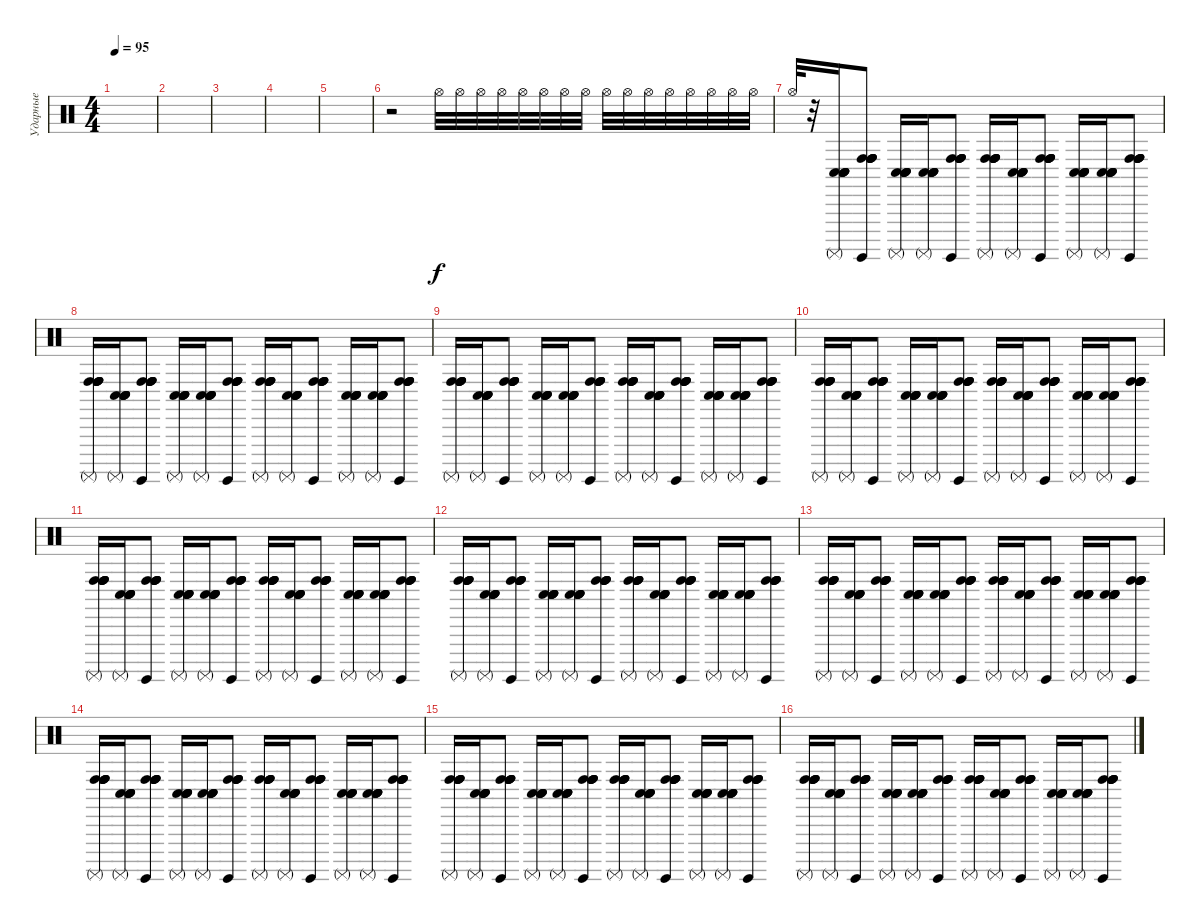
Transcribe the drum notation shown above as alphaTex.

\track ("Ударные" "Ударные") {instrument percussion}
\staff {score}
\articulation defaults
\ts (4 4)
\tempo 95
\clef neutral
\ks c
|
|
|
|
|
r.2{volume 3} "Hi-Hat (open)".32{volume 10} "Hi-Hat (open)".32 "Hi-Hat (open)".32 "Hi-Hat (open)".32 "Hi-Hat (open)".32 "Hi-Hat (open)".32 "Hi-Hat (open)".32 "Hi-Hat (open)".32 "Hi-Hat (open)".32 "Hi-Hat (open)".32 "Hi-Hat (open)".32 "Hi-Hat (open)".32 "Hi-Hat (open)".32 "Hi-Hat (open)".32 "Hi-Hat (open)".32 "Hi-Hat (open)".32 |
"Hi-Hat (open)".32 r.32 ("Surdo (mute)" "Conga low (hit)" "Conga low (hit)" "Conga low (hit)" "Conga low (hit)" "Conga low (hit)").16 ("Surdo (hit)" "Conga high (hit)" "Conga high (hit)" "Conga high (hit)" "Conga high (hit)" "Conga high (hit)").8 ("Surdo (mute)" "Conga low (hit)" "Conga low (hit)" "Conga low (hit)" "Conga low (hit)" "Conga low (hit)").16 ("Surdo (mute)" "Conga low (hit)" "Conga low (hit)" "Conga low (hit)" "Conga low (hit)" "Conga low (hit)").16 ("Surdo (hit)" "Conga high (hit)" "Conga high (hit)" "Conga high (hit)" "Conga high (hit)" "Conga high (hit)").8{volume 7} ("Surdo (mute)" "Conga high (hit)" "Conga high (hit)" "Conga high (hit)" "Conga high (hit)" "Conga high (hit)").16 ("Surdo (mute)" "Conga low (hit)" "Conga low (hit)" "Conga low (hit)" "Conga low (hit)" "Conga low (hit)").16 ("Surdo (hit)" "Conga high (hit)" "Conga high (hit)" "Conga high (hit)" "Conga high (hit)" "Conga high (hit)").8 ("Surdo (mute)" "Conga low (hit)" "Conga low (hit)" "Conga low (hit)" "Conga low (hit)" "Conga low (hit)").16 ("Surdo (mute)" "Conga low (hit)" "Conga low (hit)" "Conga low (hit)" "Conga low (hit)" "Conga low (hit)").16 ("Surdo (hit)" "Conga high (hit)" "Conga high (hit)" "Conga high (hit)" "Conga high (hit)" "Conga high (hit)").8 |
("Surdo (mute)" "Conga high (hit)" "Conga high (hit)" "Conga high (hit)" "Conga high (hit)" "Conga high (hit)").16{volume 7} ("Surdo (mute)" "Conga low (hit)" "Conga low (hit)" "Conga low (hit)" "Conga low (hit)" "Conga low (hit)").16 ("Surdo (hit)" "Conga high (hit)" "Conga high (hit)" "Conga high (hit)" "Conga high (hit)" "Conga high (hit)").8 ("Surdo (mute)" "Conga low (hit)" "Conga low (hit)" "Conga low (hit)" "Conga low (hit)" "Conga low (hit)").16 ("Surdo (mute)" "Conga low (hit)" "Conga low (hit)" "Conga low (hit)" "Conga low (hit)" "Conga low (hit)").16 ("Surdo (hit)" "Conga high (hit)" "Conga high (hit)" "Conga high (hit)" "Conga high (hit)" "Conga high (hit)").8 ("Surdo (mute)" "Conga high (hit)" "Conga high (hit)" "Conga high (hit)" "Conga high (hit)" "Conga high (hit)").16 ("Surdo (mute)" "Conga low (hit)" "Conga low (hit)" "Conga low (hit)" "Conga low (hit)" "Conga low (hit)").16 ("Surdo (hit)" "Conga high (hit)" "Conga high (hit)" "Conga high (hit)" "Conga high (hit)" "Conga high (hit)").8 ("Surdo (mute)" "Conga low (hit)" "Conga low (hit)" "Conga low (hit)" "Conga low (hit)" "Conga low (hit)").16 ("Surdo (mute)" "Conga low (hit)" "Conga low (hit)" "Conga low (hit)" "Conga low (hit)" "Conga low (hit)").16 ("Surdo (hit)" "Conga high (hit)" "Conga high (hit)" "Conga high (hit)" "Conga high (hit)" "Conga high (hit)").8 |
("Surdo (mute)" "Conga high (hit)" "Conga high (hit)" "Conga high (hit)" "Conga high (hit)" "Conga high (hit)").16 ("Surdo (mute)" "Conga low (hit)" "Conga low (hit)" "Conga low (hit)" "Conga low (hit)" "Conga low (hit)").16 ("Surdo (hit)" "Conga high (hit)" "Conga high (hit)" "Conga high (hit)" "Conga high (hit)" "Conga high (hit)").8 ("Surdo (mute)" "Conga low (hit)" "Conga low (hit)" "Conga low (hit)" "Conga low (hit)" "Conga low (hit)").16 ("Surdo (mute)" "Conga low (hit)" "Conga low (hit)" "Conga low (hit)" "Conga low (hit)" "Conga low (hit)").16 ("Surdo (hit)" "Conga high (hit)" "Conga high (hit)" "Conga high (hit)" "Conga high (hit)" "Conga high (hit)").8 ("Surdo (mute)" "Conga high (hit)" "Conga high (hit)" "Conga high (hit)" "Conga high (hit)" "Conga high (hit)").16 ("Surdo (mute)" "Conga low (hit)" "Conga low (hit)" "Conga low (hit)" "Conga low (hit)" "Conga low (hit)").16 ("Surdo (hit)" "Conga high (hit)" "Conga high (hit)" "Conga high (hit)" "Conga high (hit)" "Conga high (hit)").8 ("Surdo (mute)" "Conga low (hit)" "Conga low (hit)" "Conga low (hit)" "Conga low (hit)" "Conga low (hit)").16 ("Surdo (mute)" "Conga low (hit)" "Conga low (hit)" "Conga low (hit)" "Conga low (hit)" "Conga low (hit)").16 ("Surdo (hit)" "Conga high (hit)" "Conga high (hit)" "Conga high (hit)" "Conga high (hit)" "Conga high (hit)").8 |
("Surdo (mute)" "Conga high (hit)" "Conga high (hit)" "Conga high (hit)" "Conga high (hit)" "Conga high (hit)").16 ("Surdo (mute)" "Conga low (hit)" "Conga low (hit)" "Conga low (hit)" "Conga low (hit)" "Conga low (hit)").16 ("Surdo (hit)" "Conga high (hit)" "Conga high (hit)" "Conga high (hit)" "Conga high (hit)" "Conga high (hit)").8 ("Surdo (mute)" "Conga low (hit)" "Conga low (hit)" "Conga low (hit)" "Conga low (hit)" "Conga low (hit)").16 ("Surdo (mute)" "Conga low (hit)" "Conga low (hit)" "Conga low (hit)" "Conga low (hit)" "Conga low (hit)").16 ("Surdo (hit)" "Conga high (hit)" "Conga high (hit)" "Conga high (hit)" "Conga high (hit)" "Conga high (hit)").8 ("Surdo (mute)" "Conga high (hit)" "Conga high (hit)" "Conga high (hit)" "Conga high (hit)" "Conga high (hit)").16 ("Surdo (mute)" "Conga low (hit)" "Conga low (hit)" "Conga low (hit)" "Conga low (hit)" "Conga low (hit)").16 ("Surdo (hit)" "Conga high (hit)" "Conga high (hit)" "Conga high (hit)" "Conga high (hit)" "Conga high (hit)").8 ("Surdo (mute)" "Conga low (hit)" "Conga low (hit)" "Conga low (hit)" "Conga low (hit)" "Conga low (hit)").16 ("Surdo (mute)" "Conga low (hit)" "Conga low (hit)" "Conga low (hit)" "Conga low (hit)" "Conga low (hit)").16 ("Surdo (hit)" "Conga high (hit)" "Conga high (hit)" "Conga high (hit)" "Conga high (hit)" "Conga high (hit)").8 |
("Surdo (mute)" "Conga high (hit)" "Conga high (hit)" "Conga high (hit)" "Conga high (hit)" "Conga high (hit)").16 ("Surdo (mute)" "Conga low (hit)" "Conga low (hit)" "Conga low (hit)" "Conga low (hit)" "Conga low (hit)").16 ("Surdo (hit)" "Conga high (hit)" "Conga high (hit)" "Conga high (hit)" "Conga high (hit)" "Conga high (hit)").8 ("Surdo (mute)" "Conga low (hit)" "Conga low (hit)" "Conga low (hit)" "Conga low (hit)" "Conga low (hit)").16 ("Surdo (mute)" "Conga low (hit)" "Conga low (hit)" "Conga low (hit)" "Conga low (hit)" "Conga low (hit)").16 ("Surdo (hit)" "Conga high (hit)" "Conga high (hit)" "Conga high (hit)" "Conga high (hit)" "Conga high (hit)").8 ("Surdo (mute)" "Conga high (hit)" "Conga high (hit)" "Conga high (hit)" "Conga high (hit)" "Conga high (hit)").16 ("Surdo (mute)" "Conga low (hit)" "Conga low (hit)" "Conga low (hit)" "Conga low (hit)" "Conga low (hit)").16 ("Surdo (hit)" "Conga high (hit)" "Conga high (hit)" "Conga high (hit)" "Conga high (hit)" "Conga high (hit)").8 ("Surdo (mute)" "Conga low (hit)" "Conga low (hit)" "Conga low (hit)" "Conga low (hit)" "Conga low (hit)").16 ("Surdo (mute)" "Conga low (hit)" "Conga low (hit)" "Conga low (hit)" "Conga low (hit)" "Conga low (hit)").16 ("Surdo (hit)" "Conga high (hit)" "Conga high (hit)" "Conga high (hit)" "Conga high (hit)" "Conga high (hit)").8 |
("Surdo (mute)" "Conga high (hit)" "Conga high (hit)" "Conga high (hit)" "Conga high (hit)" "Conga high (hit)").16 ("Surdo (mute)" "Conga low (hit)" "Conga low (hit)" "Conga low (hit)" "Conga low (hit)" "Conga low (hit)").16 ("Surdo (hit)" "Conga high (hit)" "Conga high (hit)" "Conga high (hit)" "Conga high (hit)" "Conga high (hit)").8 ("Surdo (mute)" "Conga low (hit)" "Conga low (hit)" "Conga low (hit)" "Conga low (hit)" "Conga low (hit)").16 ("Surdo (mute)" "Conga low (hit)" "Conga low (hit)" "Conga low (hit)" "Conga low (hit)" "Conga low (hit)").16 ("Surdo (hit)" "Conga high (hit)" "Conga high (hit)" "Conga high (hit)" "Conga high (hit)" "Conga high (hit)").8 ("Surdo (mute)" "Conga high (hit)" "Conga high (hit)" "Conga high (hit)" "Conga high (hit)" "Conga high (hit)").16 ("Surdo (mute)" "Conga low (hit)" "Conga low (hit)" "Conga low (hit)" "Conga low (hit)" "Conga low (hit)").16 ("Surdo (hit)" "Conga high (hit)" "Conga high (hit)" "Conga high (hit)" "Conga high (hit)" "Conga high (hit)").8 ("Surdo (mute)" "Conga low (hit)" "Conga low (hit)" "Conga low (hit)" "Conga low (hit)" "Conga low (hit)").16 ("Surdo (mute)" "Conga low (hit)" "Conga low (hit)" "Conga low (hit)" "Conga low (hit)" "Conga low (hit)").16 ("Surdo (hit)" "Conga high (hit)" "Conga high (hit)" "Conga high (hit)" "Conga high (hit)" "Conga high (hit)").8 |
("Surdo (mute)" "Conga high (hit)" "Conga high (hit)" "Conga high (hit)" "Conga high (hit)" "Conga high (hit)").16 ("Surdo (mute)" "Conga low (hit)" "Conga low (hit)" "Conga low (hit)" "Conga low (hit)" "Conga low (hit)").16 ("Surdo (hit)" "Conga high (hit)" "Conga high (hit)" "Conga high (hit)" "Conga high (hit)" "Conga high (hit)").8 ("Surdo (mute)" "Conga low (hit)" "Conga low (hit)" "Conga low (hit)" "Conga low (hit)" "Conga low (hit)").16 ("Surdo (mute)" "Conga low (hit)" "Conga low (hit)" "Conga low (hit)" "Conga low (hit)" "Conga low (hit)").16 ("Surdo (hit)" "Conga high (hit)" "Conga high (hit)" "Conga high (hit)" "Conga high (hit)" "Conga high (hit)").8 ("Surdo (mute)" "Conga high (hit)" "Conga high (hit)" "Conga high (hit)" "Conga high (hit)" "Conga high (hit)").16 ("Surdo (mute)" "Conga low (hit)" "Conga low (hit)" "Conga low (hit)" "Conga low (hit)" "Conga low (hit)").16 ("Surdo (hit)" "Conga high (hit)" "Conga high (hit)" "Conga high (hit)" "Conga high (hit)" "Conga high (hit)").8 ("Surdo (mute)" "Conga low (hit)" "Conga low (hit)" "Conga low (hit)" "Conga low (hit)" "Conga low (hit)").16 ("Surdo (mute)" "Conga low (hit)" "Conga low (hit)" "Conga low (hit)" "Conga low (hit)" "Conga low (hit)").16 ("Surdo (hit)" "Conga high (hit)" "Conga high (hit)" "Conga high (hit)" "Conga high (hit)" "Conga high (hit)").8 |
("Surdo (mute)" "Conga high (hit)" "Conga high (hit)" "Conga high (hit)" "Conga high (hit)" "Conga high (hit)").16 ("Surdo (mute)" "Conga low (hit)" "Conga low (hit)" "Conga low (hit)" "Conga low (hit)" "Conga low (hit)").16 ("Surdo (hit)" "Conga high (hit)" "Conga high (hit)" "Conga high (hit)" "Conga high (hit)" "Conga high (hit)").8 ("Surdo (mute)" "Conga low (hit)" "Conga low (hit)" "Conga low (hit)" "Conga low (hit)" "Conga low (hit)").16 ("Surdo (mute)" "Conga low (hit)" "Conga low (hit)" "Conga low (hit)" "Conga low (hit)" "Conga low (hit)").16 ("Surdo (hit)" "Conga high (hit)" "Conga high (hit)" "Conga high (hit)" "Conga high (hit)" "Conga high (hit)").8 ("Surdo (mute)" "Conga high (hit)" "Conga high (hit)" "Conga high (hit)" "Conga high (hit)" "Conga high (hit)").16 ("Surdo (mute)" "Conga low (hit)" "Conga low (hit)" "Conga low (hit)" "Conga low (hit)" "Conga low (hit)").16 ("Surdo (hit)" "Conga high (hit)" "Conga high (hit)" "Conga high (hit)" "Conga high (hit)" "Conga high (hit)").8 ("Surdo (mute)" "Conga low (hit)" "Conga low (hit)" "Conga low (hit)" "Conga low (hit)" "Conga low (hit)").16 ("Surdo (mute)" "Conga low (hit)" "Conga low (hit)" "Conga low (hit)" "Conga low (hit)" "Conga low (hit)").16 ("Surdo (hit)" "Conga high (hit)" "Conga high (hit)" "Conga high (hit)" "Conga high (hit)" "Conga high (hit)").8 |
("Surdo (mute)" "Conga high (hit)" "Conga high (hit)" "Conga high (hit)" "Conga high (hit)" "Conga high (hit)").16 ("Surdo (mute)" "Conga low (hit)" "Conga low (hit)" "Conga low (hit)" "Conga low (hit)" "Conga low (hit)").16 ("Surdo (hit)" "Conga high (hit)" "Conga high (hit)" "Conga high (hit)" "Conga high (hit)" "Conga high (hit)").8 ("Surdo (mute)" "Conga low (hit)" "Conga low (hit)" "Conga low (hit)" "Conga low (hit)" "Conga low (hit)").16 ("Surdo (mute)" "Conga low (hit)" "Conga low (hit)" "Conga low (hit)" "Conga low (hit)" "Conga low (hit)").16 ("Surdo (hit)" "Conga high (hit)" "Conga high (hit)" "Conga high (hit)" "Conga high (hit)" "Conga high (hit)").8 ("Surdo (mute)" "Conga high (hit)" "Conga high (hit)" "Conga high (hit)" "Conga high (hit)" "Conga high (hit)").16 ("Surdo (mute)" "Conga low (hit)" "Conga low (hit)" "Conga low (hit)" "Conga low (hit)" "Conga low (hit)").16 ("Surdo (hit)" "Conga high (hit)" "Conga high (hit)" "Conga high (hit)" "Conga high (hit)" "Conga high (hit)").8 ("Surdo (mute)" "Conga low (hit)" "Conga low (hit)" "Conga low (hit)" "Conga low (hit)" "Conga low (hit)").16 ("Surdo (mute)" "Conga low (hit)" "Conga low (hit)" "Conga low (hit)" "Conga low (hit)" "Conga low (hit)").16 ("Surdo (hit)" "Conga high (hit)" "Conga high (hit)" "Conga high (hit)" "Conga high (hit)" "Conga high (hit)").8 |
("Surdo (mute)" "Conga high (hit)" "Conga high (hit)" "Conga high (hit)" "Conga high (hit)" "Conga high (hit)").16 ("Surdo (mute)" "Conga low (hit)" "Conga low (hit)" "Conga low (hit)" "Conga low (hit)" "Conga low (hit)").16 ("Surdo (hit)" "Conga high (hit)" "Conga high (hit)" "Conga high (hit)" "Conga high (hit)" "Conga high (hit)").8 ("Surdo (mute)" "Conga low (hit)" "Conga low (hit)" "Conga low (hit)" "Conga low (hit)" "Conga low (hit)").16 ("Surdo (mute)" "Conga low (hit)" "Conga low (hit)" "Conga low (hit)" "Conga low (hit)" "Conga low (hit)").16 ("Surdo (hit)" "Conga high (hit)" "Conga high (hit)" "Conga high (hit)" "Conga high (hit)" "Conga high (hit)").8 ("Surdo (mute)" "Conga high (hit)" "Conga high (hit)" "Conga high (hit)" "Conga high (hit)" "Conga high (hit)").16 ("Surdo (mute)" "Conga low (hit)" "Conga low (hit)" "Conga low (hit)" "Conga low (hit)" "Conga low (hit)").16 ("Surdo (hit)" "Conga high (hit)" "Conga high (hit)" "Conga high (hit)" "Conga high (hit)" "Conga high (hit)").8 ("Surdo (mute)" "Conga low (hit)" "Conga low (hit)" "Conga low (hit)" "Conga low (hit)" "Conga low (hit)").16 ("Surdo (mute)" "Conga low (hit)" "Conga low (hit)" "Conga low (hit)" "Conga low (hit)" "Conga low (hit)").16 ("Surdo (hit)" "Conga high (hit)" "Conga high (hit)" "Conga high (hit)" "Conga high (hit)" "Conga high (hit)").8
